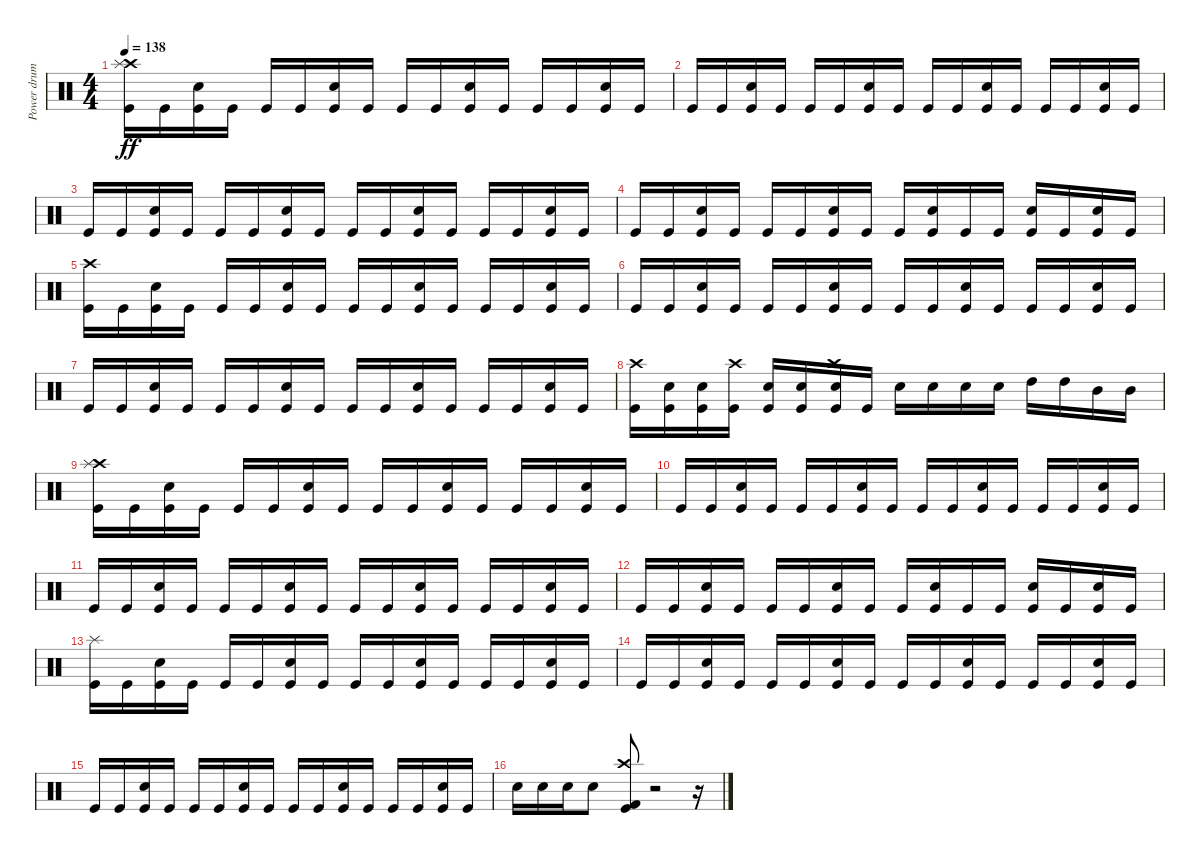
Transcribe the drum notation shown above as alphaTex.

\track ("Power drums" "Power drum") {instrument percussion}
\staff {score}
\articulation defaults
\ts (4 4)
\tempo 138
\clef neutral
\ks c
("Kick (hit)" "Crash high (hit)" "Splash (hit)").16{dy ff} "Kick (hit)".16 ("Kick (hit)" "Snare (hit) 2").16 "Kick (hit)".16 "Kick (hit)".16 "Kick (hit)".16 ("Kick (hit)" "Snare (hit) 2").16 "Kick (hit)".16 "Kick (hit)".16 "Kick (hit)".16 ("Kick (hit)" "Snare (hit) 2").16 "Kick (hit)".16 "Kick (hit)".16 "Kick (hit)".16 ("Kick (hit)" "Snare (hit) 2").16 "Kick (hit)".16 |
"Kick (hit)".16 "Kick (hit)".16 ("Kick (hit)" "Snare (hit) 2").16 "Kick (hit)".16 "Kick (hit)".16 "Kick (hit)".16 ("Kick (hit)" "Snare (hit) 2").16 "Kick (hit)".16 "Kick (hit)".16 "Kick (hit)".16 ("Kick (hit)" "Snare (hit) 2").16 "Kick (hit)".16 "Kick (hit)".16 "Kick (hit)".16 ("Kick (hit)" "Snare (hit) 2").16 "Kick (hit)".16 |
"Kick (hit)".16 "Kick (hit)".16 ("Kick (hit)" "Snare (hit) 2").16 "Kick (hit)".16 "Kick (hit)".16 "Kick (hit)".16 ("Kick (hit)" "Snare (hit) 2").16 "Kick (hit)".16 "Kick (hit)".16 "Kick (hit)".16 ("Kick (hit)" "Snare (hit) 2").16 "Kick (hit)".16 "Kick (hit)".16 "Kick (hit)".16 ("Kick (hit)" "Snare (hit) 2").16 "Kick (hit)".16 |
"Kick (hit)".16 "Kick (hit)".16 ("Kick (hit)" "Snare (hit) 2").16 "Kick (hit)".16 "Kick (hit)".16 "Kick (hit)".16 ("Kick (hit)" "Snare (hit) 2").16 "Kick (hit)".16 "Kick (hit)".16 ("Kick (hit)" "Snare (hit) 2").16 "Kick (hit)".16 "Kick (hit)".16 ("Kick (hit)" "Snare (hit) 2").16 "Kick (hit)".16 ("Kick (hit)" "Snare (hit) 2").16 "Kick (hit)".16 |
("Kick (hit)" "Crash high (hit)").16 "Kick (hit)".16 ("Kick (hit)" "Snare (hit) 2").16 "Kick (hit)".16 "Kick (hit)".16 "Kick (hit)".16 ("Kick (hit)" "Snare (hit) 2").16 "Kick (hit)".16 "Kick (hit)".16 "Kick (hit)".16 ("Kick (hit)" "Snare (hit) 2").16 "Kick (hit)".16 "Kick (hit)".16 "Kick (hit)".16 ("Kick (hit)" "Snare (hit) 2").16 "Kick (hit)".16 |
"Kick (hit)".16 "Kick (hit)".16 ("Kick (hit)" "Snare (hit) 2").16 "Kick (hit)".16 "Kick (hit)".16 "Kick (hit)".16 ("Kick (hit)" "Snare (hit) 2").16 "Kick (hit)".16 "Kick (hit)".16 "Kick (hit)".16 ("Kick (hit)" "Snare (hit) 2").16 "Kick (hit)".16 "Kick (hit)".16 "Kick (hit)".16 ("Kick (hit)" "Snare (hit) 2").16 "Kick (hit)".16 |
"Kick (hit)".16 "Kick (hit)".16 ("Kick (hit)" "Snare (hit) 2").16 "Kick (hit)".16 "Kick (hit)".16 "Kick (hit)".16 ("Kick (hit)" "Snare (hit) 2").16 "Kick (hit)".16 "Kick (hit)".16 "Kick (hit)".16 ("Kick (hit)" "Snare (hit) 2").16 "Kick (hit)".16 "Kick (hit)".16 "Kick (hit)".16 ("Kick (hit)" "Snare (hit) 2").16 "Kick (hit)".16 |
("Kick (hit)" "Crash high (hit)").16 ("Kick (hit)" "Snare (hit) 2").16 ("Kick (hit)" "Snare (hit) 2").16 ("Kick (hit)" "Crash high (hit)").16 ("Kick (hit)" "Snare (hit) 2").16 ("Kick (hit)" "Snare (hit) 2").16 ("Kick (hit)" "Snare (hit) 2" "Crash high (hit)").16 "Kick (hit)".16 "Snare (hit) 2".16 "Snare (hit) 2".16 "Snare (hit) 2".16 "Snare (hit) 2".16 "High Tom (hit)".16 "High Tom (hit)".16 "Mid Tom (hit)".16 "Mid Tom (hit)".16 |
("Kick (hit)" "Crash high (hit)" "Splash (hit)").16 "Kick (hit)".16 ("Kick (hit)" "Snare (hit) 2").16 "Kick (hit)".16 "Kick (hit)".16 "Kick (hit)".16 ("Kick (hit)" "Snare (hit) 2").16 "Kick (hit)".16 "Kick (hit)".16 "Kick (hit)".16 ("Kick (hit)" "Snare (hit) 2").16 "Kick (hit)".16 "Kick (hit)".16 "Kick (hit)".16 ("Kick (hit)" "Snare (hit) 2").16 "Kick (hit)".16 |
"Kick (hit)".16 "Kick (hit)".16 ("Kick (hit)" "Snare (hit) 2").16 "Kick (hit)".16 "Kick (hit)".16 "Kick (hit)".16 ("Kick (hit)" "Snare (hit) 2").16 "Kick (hit)".16 "Kick (hit)".16 "Kick (hit)".16 ("Kick (hit)" "Snare (hit) 2").16 "Kick (hit)".16 "Kick (hit)".16 "Kick (hit)".16 ("Kick (hit)" "Snare (hit) 2").16 "Kick (hit)".16 |
"Kick (hit)".16 "Kick (hit)".16 ("Kick (hit)" "Snare (hit) 2").16 "Kick (hit)".16 "Kick (hit)".16 "Kick (hit)".16 ("Kick (hit)" "Snare (hit) 2").16 "Kick (hit)".16 "Kick (hit)".16 "Kick (hit)".16 ("Kick (hit)" "Snare (hit) 2").16 "Kick (hit)".16 "Kick (hit)".16 "Kick (hit)".16 ("Kick (hit)" "Snare (hit) 2").16 "Kick (hit)".16 |
"Kick (hit)".16 "Kick (hit)".16 ("Kick (hit)" "Snare (hit) 2").16 "Kick (hit)".16 "Kick (hit)".16 "Kick (hit)".16 ("Kick (hit)" "Snare (hit) 2").16 "Kick (hit)".16 "Kick (hit)".16 ("Kick (hit)" "Snare (hit) 2").16 "Kick (hit)".16 "Kick (hit)".16 ("Kick (hit)" "Snare (hit) 2").16 "Kick (hit)".16 ("Kick (hit)" "Snare (hit) 2").16 "Kick (hit)".16 |
("Kick (hit)" "Splash (hit)").16 "Kick (hit)".16 ("Kick (hit)" "Snare (hit) 2").16 "Kick (hit)".16 "Kick (hit)".16 "Kick (hit)".16 ("Kick (hit)" "Snare (hit) 2").16 "Kick (hit)".16 "Kick (hit)".16 "Kick (hit)".16 ("Kick (hit)" "Snare (hit) 2").16 "Kick (hit)".16 "Kick (hit)".16 "Kick (hit)".16 ("Kick (hit)" "Snare (hit) 2").16 "Kick (hit)".16 |
"Kick (hit)".16 "Kick (hit)".16 ("Kick (hit)" "Snare (hit) 2").16 "Kick (hit)".16 "Kick (hit)".16 "Kick (hit)".16 ("Kick (hit)" "Snare (hit) 2").16 "Kick (hit)".16 "Kick (hit)".16 "Kick (hit)".16 ("Kick (hit)" "Snare (hit) 2").16 "Kick (hit)".16 "Kick (hit)".16 "Kick (hit)".16 ("Kick (hit)" "Snare (hit) 2").16 "Kick (hit)".16 |
"Kick (hit)".16 "Kick (hit)".16 ("Kick (hit)" "Snare (hit) 2").16 "Kick (hit)".16 "Kick (hit)".16 "Kick (hit)".16 ("Kick (hit)" "Snare (hit) 2").16 "Kick (hit)".16 "Kick (hit)".16 "Kick (hit)".16 ("Kick (hit)" "Snare (hit) 2").16 "Kick (hit)".16 "Kick (hit)".16 "Kick (hit)".16 ("Kick (hit)" "Snare (hit) 2").16 "Kick (hit)".16 |
"Electric Snare (hit)".16 "Electric Snare (hit)".16 "Electric Snare (hit)".16 "Electric Snare (hit)".8 ("Kick (hit)" "Kick (hit) 2" "Crash high (hit)").8 r.2 r.16
